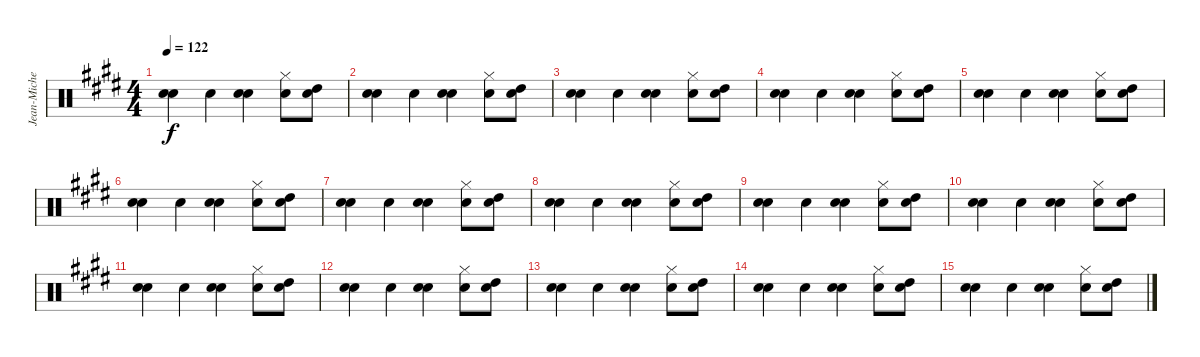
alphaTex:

\track ("Jean-Michel Truong (Batterie)" "Jean-Miche") {instrument percussion}
\staff {score}
\articulation defaults
\ts (4 4)
\tempo 122
\clef neutral
\ks e
("Snare (hit) 2" "Electric Snare (hit)").4{dy f} "Electric Snare (hit)".4 ("Snare (hit) 2" "Electric Snare (hit)").4 ("Electric Snare (hit)" "Hi-Hat (closed)").8 ("Electric Snare (hit)" "High Tom (hit)").8 |
("Snare (hit) 2" "Electric Snare (hit)").4 "Electric Snare (hit)".4 ("Snare (hit) 2" "Electric Snare (hit)").4 ("Electric Snare (hit)" "Hi-Hat (closed)").8 ("Electric Snare (hit)" "High Tom (hit)").8 |
("Snare (hit) 2" "Electric Snare (hit)").4 "Electric Snare (hit)".4 ("Snare (hit) 2" "Electric Snare (hit)").4 ("Electric Snare (hit)" "Hi-Hat (closed)").8 ("Electric Snare (hit)" "High Tom (hit)").8 |
("Snare (hit) 2" "Electric Snare (hit)").4 "Electric Snare (hit)".4 ("Snare (hit) 2" "Electric Snare (hit)").4 ("Electric Snare (hit)" "Hi-Hat (closed)").8 ("Electric Snare (hit)" "High Tom (hit)").8 |
("Snare (hit) 2" "Electric Snare (hit)").4 "Electric Snare (hit)".4 ("Snare (hit) 2" "Electric Snare (hit)").4 ("Electric Snare (hit)" "Hi-Hat (closed)").8 ("Electric Snare (hit)" "High Tom (hit)").8 |
("Snare (hit) 2" "Electric Snare (hit)").4 "Electric Snare (hit)".4 ("Snare (hit) 2" "Electric Snare (hit)").4 ("Electric Snare (hit)" "Hi-Hat (closed)").8 ("Electric Snare (hit)" "High Tom (hit)").8 |
("Snare (hit) 2" "Electric Snare (hit)").4 "Electric Snare (hit)".4 ("Snare (hit) 2" "Electric Snare (hit)").4 ("Electric Snare (hit)" "Hi-Hat (closed)").8 ("Electric Snare (hit)" "High Tom (hit)").8 |
("Snare (hit) 2" "Electric Snare (hit)").4 "Electric Snare (hit)".4 ("Snare (hit) 2" "Electric Snare (hit)").4 ("Electric Snare (hit)" "Hi-Hat (closed)").8 ("Electric Snare (hit)" "High Tom (hit)").8 |
("Snare (hit) 2" "Electric Snare (hit)").4 "Electric Snare (hit)".4 ("Snare (hit) 2" "Electric Snare (hit)").4 ("Electric Snare (hit)" "Hi-Hat (closed)").8 ("Electric Snare (hit)" "High Tom (hit)").8 |
("Snare (hit) 2" "Electric Snare (hit)").4 "Electric Snare (hit)".4 ("Snare (hit) 2" "Electric Snare (hit)").4 ("Electric Snare (hit)" "Hi-Hat (closed)").8 ("Electric Snare (hit)" "High Tom (hit)").8 |
("Snare (hit) 2" "Electric Snare (hit)").4 "Electric Snare (hit)".4 ("Snare (hit) 2" "Electric Snare (hit)").4 ("Electric Snare (hit)" "Hi-Hat (closed)").8 ("Electric Snare (hit)" "High Tom (hit)").8 |
("Snare (hit) 2" "Electric Snare (hit)").4 "Electric Snare (hit)".4 ("Snare (hit) 2" "Electric Snare (hit)").4 ("Electric Snare (hit)" "Hi-Hat (closed)").8 ("Electric Snare (hit)" "High Tom (hit)").8 |
("Snare (hit) 2" "Electric Snare (hit)").4 "Electric Snare (hit)".4 ("Snare (hit) 2" "Electric Snare (hit)").4 ("Electric Snare (hit)" "Hi-Hat (closed)").8 ("Electric Snare (hit)" "High Tom (hit)").8 |
("Snare (hit) 2" "Electric Snare (hit)").4 "Electric Snare (hit)".4 ("Snare (hit) 2" "Electric Snare (hit)").4 ("Electric Snare (hit)" "Hi-Hat (closed)").8 ("Electric Snare (hit)" "High Tom (hit)").8 |
("Snare (hit) 2" "Electric Snare (hit)").4 "Electric Snare (hit)".4 ("Snare (hit) 2" "Electric Snare (hit)").4 ("Electric Snare (hit)" "Hi-Hat (closed)").8 ("Electric Snare (hit)" "High Tom (hit)").8
